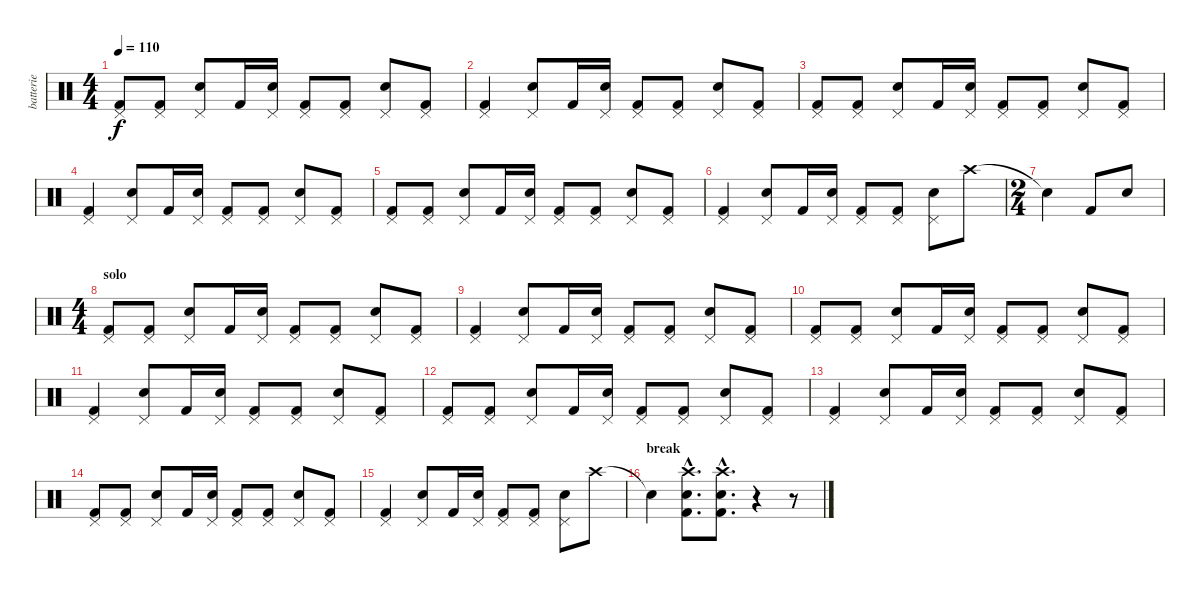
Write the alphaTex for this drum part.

\track ("batterie" "batterie") {instrument percussion}
\staff {score}
\articulation defaults
\ts (4 4)
\tempo 110
\clef neutral
\ks c
("Pedal Hi-Hat (hit)" "Kick (hit) 2").8{dy f} ("Pedal Hi-Hat (hit)" "Kick (hit) 2").8 ("Pedal Hi-Hat (hit)" "Snare (hit) 2").8 "Kick (hit) 2".16 ("Pedal Hi-Hat (hit)" "Snare (hit) 2").16 ("Pedal Hi-Hat (hit)" "Kick (hit) 2").8 ("Pedal Hi-Hat (hit)" "Kick (hit) 2").8 ("Pedal Hi-Hat (hit)" "Snare (hit) 2").8 ("Pedal Hi-Hat (hit)" "Kick (hit) 2").8 |
("Pedal Hi-Hat (hit)" "Kick (hit) 2").4 ("Pedal Hi-Hat (hit)" "Snare (hit) 2").8 "Kick (hit) 2".16 ("Pedal Hi-Hat (hit)" "Snare (hit) 2").16 ("Pedal Hi-Hat (hit)" "Kick (hit) 2").8 ("Pedal Hi-Hat (hit)" "Kick (hit) 2").8 ("Pedal Hi-Hat (hit)" "Snare (hit) 2").8 ("Pedal Hi-Hat (hit)" "Kick (hit) 2").8 |
("Pedal Hi-Hat (hit)" "Kick (hit) 2").8 ("Pedal Hi-Hat (hit)" "Kick (hit) 2").8 ("Pedal Hi-Hat (hit)" "Snare (hit) 2").8 "Kick (hit) 2".16 ("Pedal Hi-Hat (hit)" "Snare (hit) 2").16 ("Pedal Hi-Hat (hit)" "Kick (hit) 2").8 ("Pedal Hi-Hat (hit)" "Kick (hit) 2").8 ("Pedal Hi-Hat (hit)" "Snare (hit) 2").8 ("Pedal Hi-Hat (hit)" "Kick (hit) 2").8 |
("Pedal Hi-Hat (hit)" "Kick (hit) 2").4 ("Pedal Hi-Hat (hit)" "Snare (hit) 2").8 "Kick (hit) 2".16 ("Pedal Hi-Hat (hit)" "Snare (hit) 2").16 ("Pedal Hi-Hat (hit)" "Kick (hit) 2").8 ("Pedal Hi-Hat (hit)" "Kick (hit) 2").8 ("Pedal Hi-Hat (hit)" "Snare (hit) 2").8 ("Pedal Hi-Hat (hit)" "Kick (hit) 2").8 |
("Pedal Hi-Hat (hit)" "Kick (hit) 2").8 ("Pedal Hi-Hat (hit)" "Kick (hit) 2").8 ("Pedal Hi-Hat (hit)" "Snare (hit) 2").8 "Kick (hit) 2".16 ("Pedal Hi-Hat (hit)" "Snare (hit) 2").16 ("Pedal Hi-Hat (hit)" "Kick (hit) 2").8 ("Pedal Hi-Hat (hit)" "Kick (hit) 2").8 ("Pedal Hi-Hat (hit)" "Snare (hit) 2").8 ("Pedal Hi-Hat (hit)" "Kick (hit) 2").8 |
("Pedal Hi-Hat (hit)" "Kick (hit) 2").4 ("Pedal Hi-Hat (hit)" "Snare (hit) 2").8 "Kick (hit) 2".16 ("Pedal Hi-Hat (hit)" "Snare (hit) 2").16 ("Pedal Hi-Hat (hit)" "Kick (hit) 2").8 ("Pedal Hi-Hat (hit)" "Kick (hit) 2").8 ("Pedal Hi-Hat (hit)" "Snare (hit) 2").8 "Crash high (hit)".8 |
\ts (2 4)
"Snare (hit)"{t}.4 "Kick (hit) 2".8 "Snare (hit) 2".8 |
\ts (4 4)
\section ("" "solo")
("Pedal Hi-Hat (hit)" "Kick (hit) 2").8 ("Pedal Hi-Hat (hit)" "Kick (hit) 2").8 ("Pedal Hi-Hat (hit)" "Snare (hit) 2").8 "Kick (hit) 2".16 ("Pedal Hi-Hat (hit)" "Snare (hit) 2").16 ("Pedal Hi-Hat (hit)" "Kick (hit) 2").8 ("Pedal Hi-Hat (hit)" "Kick (hit) 2").8 ("Pedal Hi-Hat (hit)" "Snare (hit) 2").8 ("Pedal Hi-Hat (hit)" "Kick (hit) 2").8 |
("Pedal Hi-Hat (hit)" "Kick (hit) 2").4 ("Pedal Hi-Hat (hit)" "Snare (hit) 2").8 "Kick (hit) 2".16 ("Pedal Hi-Hat (hit)" "Snare (hit) 2").16 ("Pedal Hi-Hat (hit)" "Kick (hit) 2").8 ("Pedal Hi-Hat (hit)" "Kick (hit) 2").8 ("Pedal Hi-Hat (hit)" "Snare (hit) 2").8 ("Pedal Hi-Hat (hit)" "Kick (hit) 2").8 |
("Pedal Hi-Hat (hit)" "Kick (hit) 2").8 ("Pedal Hi-Hat (hit)" "Kick (hit) 2").8 ("Pedal Hi-Hat (hit)" "Snare (hit) 2").8 "Kick (hit) 2".16 ("Pedal Hi-Hat (hit)" "Snare (hit) 2").16 ("Pedal Hi-Hat (hit)" "Kick (hit) 2").8 ("Pedal Hi-Hat (hit)" "Kick (hit) 2").8 ("Pedal Hi-Hat (hit)" "Snare (hit) 2").8 ("Pedal Hi-Hat (hit)" "Kick (hit) 2").8 |
("Pedal Hi-Hat (hit)" "Kick (hit) 2").4 ("Pedal Hi-Hat (hit)" "Snare (hit) 2").8 "Kick (hit) 2".16 ("Pedal Hi-Hat (hit)" "Snare (hit) 2").16 ("Pedal Hi-Hat (hit)" "Kick (hit) 2").8 ("Pedal Hi-Hat (hit)" "Kick (hit) 2").8 ("Pedal Hi-Hat (hit)" "Snare (hit) 2").8 ("Pedal Hi-Hat (hit)" "Kick (hit) 2").8 |
("Pedal Hi-Hat (hit)" "Kick (hit) 2").8 ("Pedal Hi-Hat (hit)" "Kick (hit) 2").8 ("Pedal Hi-Hat (hit)" "Snare (hit) 2").8 "Kick (hit) 2".16 ("Pedal Hi-Hat (hit)" "Snare (hit) 2").16 ("Pedal Hi-Hat (hit)" "Kick (hit) 2").8 ("Pedal Hi-Hat (hit)" "Kick (hit) 2").8 ("Pedal Hi-Hat (hit)" "Snare (hit) 2").8 ("Pedal Hi-Hat (hit)" "Kick (hit) 2").8 |
("Pedal Hi-Hat (hit)" "Kick (hit) 2").4 ("Pedal Hi-Hat (hit)" "Snare (hit) 2").8 "Kick (hit) 2".16 ("Pedal Hi-Hat (hit)" "Snare (hit) 2").16 ("Pedal Hi-Hat (hit)" "Kick (hit) 2").8 ("Pedal Hi-Hat (hit)" "Kick (hit) 2").8 ("Pedal Hi-Hat (hit)" "Snare (hit) 2").8 ("Pedal Hi-Hat (hit)" "Kick (hit) 2").8 |
("Pedal Hi-Hat (hit)" "Kick (hit) 2").8 ("Pedal Hi-Hat (hit)" "Kick (hit) 2").8 ("Pedal Hi-Hat (hit)" "Snare (hit) 2").8 "Kick (hit) 2".16 ("Pedal Hi-Hat (hit)" "Snare (hit) 2").16 ("Pedal Hi-Hat (hit)" "Kick (hit) 2").8 ("Pedal Hi-Hat (hit)" "Kick (hit) 2").8 ("Pedal Hi-Hat (hit)" "Snare (hit) 2").8 ("Pedal Hi-Hat (hit)" "Kick (hit) 2").8 |
("Pedal Hi-Hat (hit)" "Kick (hit) 2").4 ("Pedal Hi-Hat (hit)" "Snare (hit) 2").8 "Kick (hit) 2".16 ("Pedal Hi-Hat (hit)" "Snare (hit) 2").16 ("Pedal Hi-Hat (hit)" "Kick (hit) 2").8 ("Pedal Hi-Hat (hit)" "Kick (hit) 2").8 ("Pedal Hi-Hat (hit)" "Snare (hit) 2").8 "Crash high (hit)".8 |
\section ("" "break")
"Snare (hit)"{t}.4 ("Crash high (hit)"{hac} "Snare (hit) 2"{hac} "Kick (hit) 2"{hac}).8{d} ("Crash high (hit)"{hac} "Snare (hit) 2"{hac} "Kick (hit) 2"{hac}).8{d} r.4 r.8
